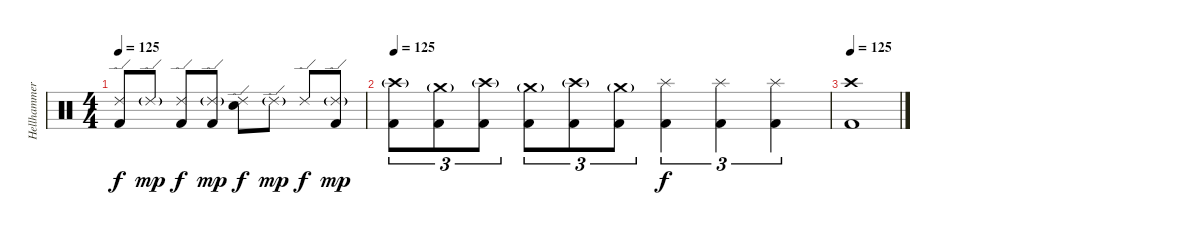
\track ("Hellhammer" "Hellhammer") {instrument percussion}
\staff {score}
\articulation defaults
\ts (4 4)
\tempo 125
\clef neutral
\ks c
("Kick (hit) 2" "Ride (edge) 2").8{dy f} "Ride (edge) 2"{g}.8{dy mp} ("Kick (hit) 2" "Ride (edge) 2").8{dy f} ("Kick (hit) 2" "Ride (edge) 2"{g}).8{dy mp} ("Electric Snare (hit)" "Ride (edge) 2").8{dy f} "Ride (edge) 2"{g}.8{dy mp} "Ride (edge) 2".8{dy f} ("Kick (hit) 2" "Ride (edge) 2"{g}).8{dy mp} |
\tempo 125
("Kick (hit) 2" "Crash high (hit)"{g}).8{tu (3 2)} ("Kick (hit) 2" "Crash medium (hit)"{g}).8{tu (3 2)} ("Kick (hit) 2" "Crash high (hit)"{g}).8{tu (3 2)} ("Kick (hit) 2" "Crash medium (hit)"{g}).8{tu (3 2)} ("Kick (hit) 2" "Crash high (hit)"{g}).8{tu (3 2)} ("Kick (hit) 2" "Crash medium (hit)"{g}).8{tu (3 2)} ("Kick (hit) 2" "Splash (hit)").4{tu (3 2) dy f} ("Kick (hit) 2" "Splash (hit)").4{tu (3 2)} ("Kick (hit) 2" "Splash (hit)").4{tu (3 2)} |
\tempo 125
("Kick (hit) 2" "Crash high (hit)").1
